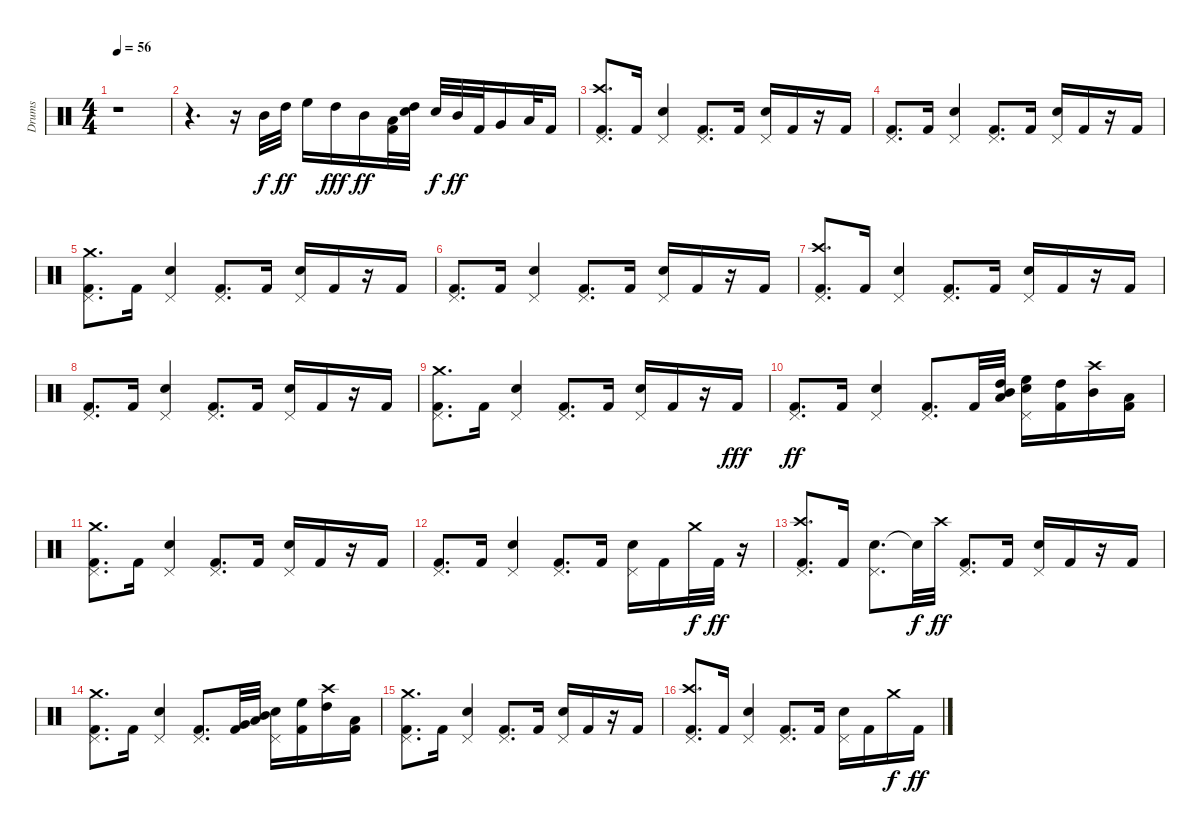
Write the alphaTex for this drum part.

\track ("Drums" "Drums") {instrument percussion}
\staff {score}
\articulation defaults
\ts (4 4)
\tempo 56
\clef neutral
\ks c
r.1{dy ff} |
r.4{d} r.16 "Mid Tom (hit)".32{dy f} "High Tom (hit)".32{dy ff} "High Floor Tom (hit)".16 "High Tom (hit)".16{dy fff} "Mid Tom (hit)".16{dy ff} ("Low Tom (hit)" "Kick (hit) 2").32 ("Electric Snare (hit)" "High Tom (hit)").32 "Snare (hit) 2".32{dy f} "Mid Tom (hit)".32{dy ff} "Kick (hit) 2".32 "Very Low Tom (hit)".16 "Low Tom (hit)".32 "Kick (hit) 2".16 |
("Crash high (hit)" "Pedal Hi-Hat (hit)" "Kick (hit) 2").8{d} "Kick (hit) 2".16 ("Snare (hit) 2" "Pedal Hi-Hat (hit)").4 ("Kick (hit) 2" "Pedal Hi-Hat (hit)").8{d} "Kick (hit) 2".16 ("Snare (hit) 2" "Pedal Hi-Hat (hit)").16 "Kick (hit) 2".16 r.16 "Kick (hit) 2".16 |
("Pedal Hi-Hat (hit)" "Kick (hit) 2").8{d} "Kick (hit) 2".16 ("Snare (hit) 2" "Pedal Hi-Hat (hit)").4 ("Kick (hit) 2" "Pedal Hi-Hat (hit)").8{d} "Kick (hit) 2".16 ("Snare (hit) 2" "Pedal Hi-Hat (hit)").16 "Kick (hit) 2".16 r.16 "Kick (hit) 2".16 |
("Pedal Hi-Hat (hit)" "Kick (hit) 2" "Crash medium (hit)").8{d} "Kick (hit) 2".16 ("Snare (hit) 2" "Pedal Hi-Hat (hit)").4 ("Kick (hit) 2" "Pedal Hi-Hat (hit)").8{d} "Kick (hit) 2".16 ("Snare (hit) 2" "Pedal Hi-Hat (hit)").16 "Kick (hit) 2".16 r.16 "Kick (hit) 2".16 |
("Pedal Hi-Hat (hit)" "Kick (hit) 2").8{d} "Kick (hit) 2".16 ("Snare (hit) 2" "Pedal Hi-Hat (hit)").4 ("Kick (hit) 2" "Pedal Hi-Hat (hit)").8{d} "Kick (hit) 2".16 ("Snare (hit) 2" "Pedal Hi-Hat (hit)").16 "Kick (hit) 2".16 r.16 "Kick (hit) 2".16 |
("Pedal Hi-Hat (hit)" "Kick (hit) 2" "Crash high (hit)").8{d} "Kick (hit) 2".16 ("Snare (hit) 2" "Pedal Hi-Hat (hit)").4 ("Kick (hit) 2" "Pedal Hi-Hat (hit)").8{d} "Kick (hit) 2".16 ("Snare (hit) 2" "Pedal Hi-Hat (hit)").16 "Kick (hit) 2".16 r.16 "Kick (hit) 2".16 |
("Pedal Hi-Hat (hit)" "Kick (hit) 2").8{d} "Kick (hit) 2".16 ("Snare (hit) 2" "Pedal Hi-Hat (hit)").4 ("Kick (hit) 2" "Pedal Hi-Hat (hit)").8{d} "Kick (hit) 2".16 ("Snare (hit) 2" "Pedal Hi-Hat (hit)").16 "Kick (hit) 2".16 r.16 "Kick (hit) 2".16 |
("Pedal Hi-Hat (hit)" "Crash medium (hit)" "Kick (hit) 2").8{d} "Kick (hit) 2".16 ("Snare (hit) 2" "Pedal Hi-Hat (hit)").4 ("Kick (hit) 2" "Pedal Hi-Hat (hit)").8{d} "Kick (hit) 2".16 ("Snare (hit) 2" "Pedal Hi-Hat (hit)").16 "Kick (hit) 2".16 r.16 "Kick (hit) 2".16{dy fff} |
("Pedal Hi-Hat (hit)" "Kick (hit) 2").8{d dy ff} "Kick (hit) 2".16 ("Snare (hit) 2" "Pedal Hi-Hat (hit)").4 ("Kick (hit) 2" "Pedal Hi-Hat (hit)").8{d} "Kick (hit) 2".32 ("Low Tom (hit)" "Mid Tom (hit)" "High Tom (hit)").32 ("Snare (hit) 2" "Pedal Hi-Hat (hit)" "High Floor Tom (hit)").16 ("Kick (hit) 2" "High Tom (hit)").16 ("Crash high (hit)" "Mid Tom (hit)").16 ("Kick (hit) 2" "Low Tom (hit)").16 |
("Crash medium (hit)" "Pedal Hi-Hat (hit)" "Kick (hit) 2").8{d} "Kick (hit) 2".16 ("Snare (hit) 2" "Pedal Hi-Hat (hit)").4 ("Kick (hit) 2" "Pedal Hi-Hat (hit)").8{d} "Kick (hit) 2".16{balance 6} ("Snare (hit) 2" "Pedal Hi-Hat (hit)").16{balance 4} "Kick (hit) 2".16{balance 3} r.16 "Kick (hit) 2".16{balance 1} |
("Pedal Hi-Hat (hit)" "Kick (hit) 2").8{d balance 0} "Kick (hit) 2".16{balance 1} ("Snare (hit) 2" "Pedal Hi-Hat (hit)").4{balance 2} ("Kick (hit) 2" "Pedal Hi-Hat (hit)").8{d balance 3} "Kick (hit) 2".16 ("Snare (hit) 2" "Pedal Hi-Hat (hit)").16 "Kick (hit) 2".16{volume 10} "Crash medium (hit)".32{dy f volume 4} "Kick (hit) 2".32{dy ff volume 1} r.16 |
("Crash high (hit)" "Pedal Hi-Hat (hit)" "Kick (hit) 2").8{d volume 0} "Kick (hit) 2".16 ("Snare (hit) 2" "Pedal Hi-Hat (hit)").8{d} "Snare (hit)"{t}.32{dy f} "Crash high (hit)".32{dy ff} ("Kick (hit) 2" "Pedal Hi-Hat (hit)").8{d} "Kick (hit) 2".16 ("Snare (hit) 2" "Pedal Hi-Hat (hit)").16 "Kick (hit) 2".16 r.16 "Kick (hit) 2".16 |
("Pedal Hi-Hat (hit)" "Crash medium (hit)" "Kick (hit) 2").8{d} "Kick (hit) 2".16 ("Snare (hit) 2" "Pedal Hi-Hat (hit)").4 ("Kick (hit) 2" "Pedal Hi-Hat (hit)").8{d} ("Kick (hit) 2" "Very Low Tom (hit)").32 ("Low Tom (hit)" "Mid Tom (hit)").32 ("Snare (hit) 2" "Pedal Hi-Hat (hit)").16 ("High Floor Tom (hit)" "Kick (hit) 2").16 ("Crash high (hit)" "High Tom (hit)").16 ("Kick (hit) 2" "Low Tom (hit)").16 |
("Crash medium (hit)" "Pedal Hi-Hat (hit)" "Kick (hit) 2").8{d} "Kick (hit) 2".16 ("Snare (hit) 2" "Pedal Hi-Hat (hit)").4 ("Kick (hit) 2" "Pedal Hi-Hat (hit)").8{d} "Kick (hit) 2".16 ("Snare (hit) 2" "Pedal Hi-Hat (hit)").16 "Kick (hit) 2".16 r.16 "Kick (hit) 2".16 |
("Crash high (hit)" "Pedal Hi-Hat (hit)" "Kick (hit) 2").8{d} "Kick (hit) 2".16 ("Snare (hit) 2" "Pedal Hi-Hat (hit)").4 ("Kick (hit) 2" "Pedal Hi-Hat (hit)").8{d} "Kick (hit) 2".16 ("Snare (hit) 2" "Pedal Hi-Hat (hit)").16 "Kick (hit) 2".16 "Crash medium (hit)".16{dy f} "Kick (hit) 2".16{dy ff}
